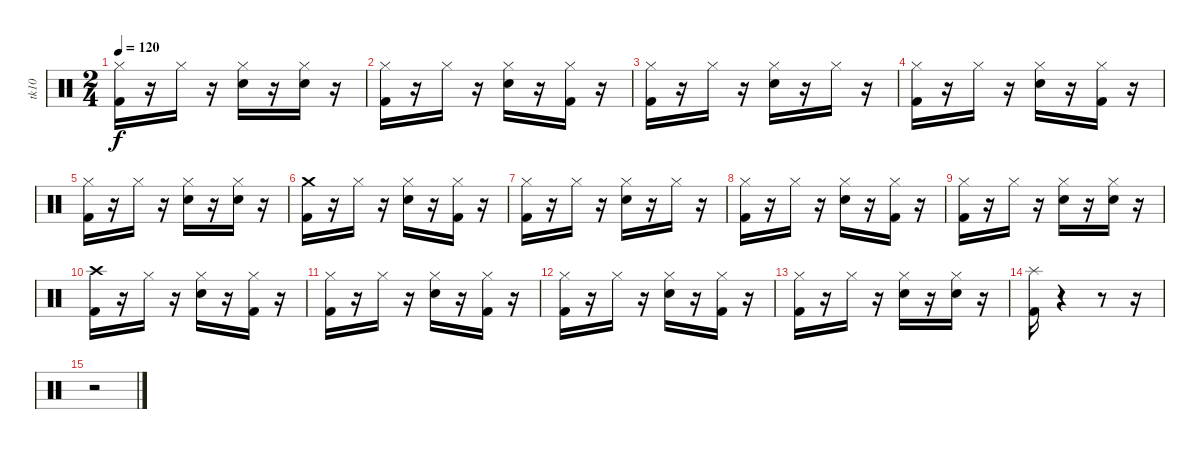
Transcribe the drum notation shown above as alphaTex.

\track ("tk10" "tk10") {instrument percussion}
\staff {score}
\articulation defaults
\ts (2 4)
\tempo 120
\clef neutral
\ks c
("Kick (hit) 2" "Hi-Hat (closed)").16{dy f} r.16 "Hi-Hat (closed)".16 r.16 ("Snare (hit) 2" "Hi-Hat (closed)").16 r.16 ("Snare (hit) 2" "Hi-Hat (closed)").16 r.16 |
("Hi-Hat (closed)" "Kick (hit) 2").16 r.16 "Hi-Hat (closed)".16 r.16 ("Hi-Hat (closed)" "Snare (hit) 2").16 r.16 ("Kick (hit) 2" "Hi-Hat (closed)").16 r.16 |
("Hi-Hat (closed)" "Kick (hit) 2").16 r.16 "Hi-Hat (closed)".16 r.16 ("Hi-Hat (closed)" "Snare (hit) 2").16 r.16 "Hi-Hat (closed)".16 r.16 |
("Hi-Hat (closed)" "Kick (hit) 2").16 r.16 "Hi-Hat (closed)".16 r.16 ("Hi-Hat (closed)" "Snare (hit) 2").16 r.16 ("Hi-Hat (closed)" "Kick (hit) 2").16 r.16 |
("Kick (hit) 2" "Hi-Hat (closed)").16 r.16 "Hi-Hat (closed)".16 r.16 ("Snare (hit) 2" "Hi-Hat (closed)").16 r.16 ("Hi-Hat (closed)" "Snare (hit) 2").16 r.16 |
("Kick (hit) 2" "Crash medium (hit)").16 r.16 "Hi-Hat (closed)".16 r.16 ("Hi-Hat (closed)" "Snare (hit) 2").16 r.16 ("Kick (hit) 2" "Hi-Hat (closed)").16 r.16 |
("Hi-Hat (closed)" "Kick (hit) 2").16 r.16 "Hi-Hat (closed)".16 r.16 ("Hi-Hat (closed)" "Snare (hit) 2").16 r.16 "Hi-Hat (closed)".16 r.16 |
("Hi-Hat (closed)" "Kick (hit) 2").16 r.16 "Hi-Hat (closed)".16 r.16 ("Hi-Hat (closed)" "Snare (hit) 2").16 r.16 ("Kick (hit) 2" "Hi-Hat (closed)").16 r.16 |
("Kick (hit) 2" "Hi-Hat (closed)").16 r.16 "Hi-Hat (closed)".16 r.16 ("Snare (hit) 2" "Hi-Hat (closed)").16 r.16 ("Snare (hit) 2" "Hi-Hat (closed)").16 r.16 |
("Kick (hit) 2" "Crash high (hit)").16 r.16 "Hi-Hat (closed)".16 r.16 ("Snare (hit) 2" "Hi-Hat (closed)").16 r.16 ("Kick (hit) 2" "Hi-Hat (closed)").16 r.16 |
("Hi-Hat (closed)" "Kick (hit) 2").16 r.16 "Hi-Hat (closed)".16 r.16 ("Snare (hit) 2" "Hi-Hat (closed)").16 r.16 ("Kick (hit) 2" "Hi-Hat (closed)").16 r.16 |
("Kick (hit) 2" "Hi-Hat (closed)").16 r.16 "Hi-Hat (closed)".16 r.16 ("Hi-Hat (closed)" "Snare (hit) 2").16 r.16 ("Hi-Hat (closed)" "Kick (hit) 2").16 r.16 |
("Hi-Hat (closed)" "Kick (hit) 2").16 r.16 "Hi-Hat (closed)".16 r.16 ("Hi-Hat (closed)" "Snare (hit) 2").16 r.16 ("Snare (hit) 2" "Hi-Hat (closed)").16 r.16 |
("Splash (hit)" "Kick (hit) 2").16 r.4 r.8 r.16 |
r.2
